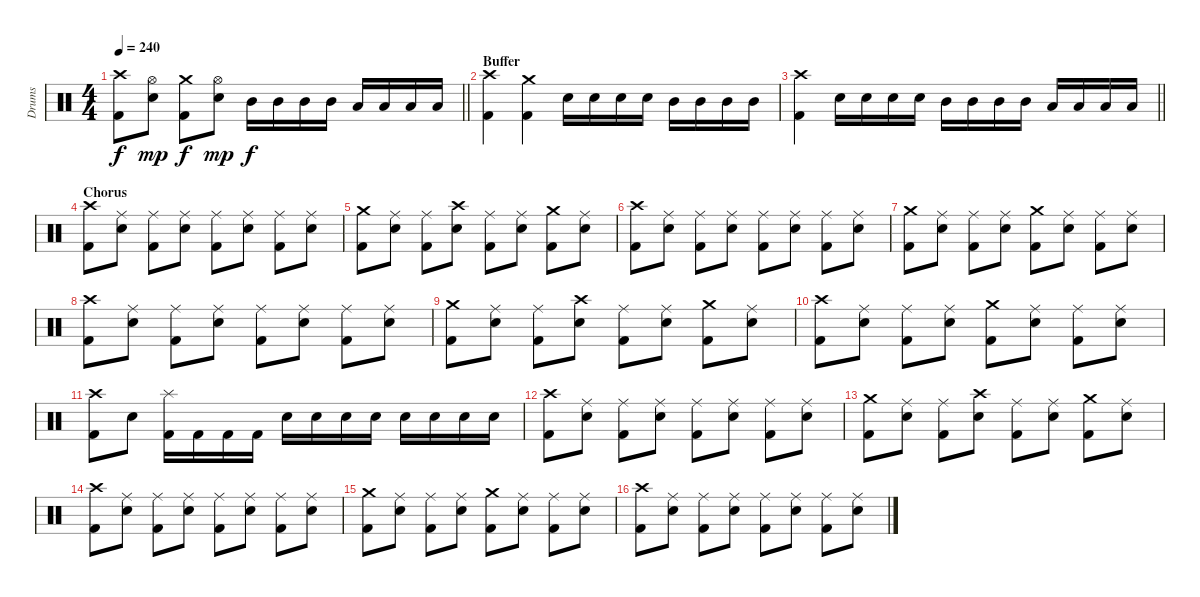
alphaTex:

\track ("Drums" "Drums") {instrument percussion}
\staff {score}
\articulation defaults
\ts (4 4)
\tempo 240
\clef neutral
\barLineRight lightlight
\ks c
("Crash high (hit)" "Kick (hit) 2").8{dy f} ("Hi-Hat (open)" "Snare (hit) 2").8{dy mp} ("Crash medium (hit)" "Kick (hit) 2").8{dy f} ("Hi-Hat (open)" "Snare (hit) 2").8{dy mp} "Mid Tom (hit)".16{dy f} "Mid Tom (hit)".16 "Mid Tom (hit)".16 "Mid Tom (hit)".16 "Low Tom (hit)".16 "Low Tom (hit)".16 "Low Tom (hit)".16 "Low Tom (hit)".16 |
\section ("" "Buffer")
("Crash high (hit)" "Kick (hit) 2").4 ("Crash medium (hit)" "Kick (hit) 2").4 "Snare (hit) 2".16 "Snare (hit) 2".16 "Snare (hit) 2".16 "Snare (hit) 2".16 "Mid Tom (hit)".16 "Mid Tom (hit)".16 "Mid Tom (hit)".16 "Mid Tom (hit)".16 |
\barLineRight lightlight
("Crash high (hit)" "Kick (hit) 2").4 "Snare (hit) 2".16 "Snare (hit) 2".16 "Snare (hit) 2".16 "Snare (hit) 2".16 "Mid Tom (hit)".16 "Mid Tom (hit)".16 "Mid Tom (hit)".16 "Mid Tom (hit)".16 "Low Tom (hit)".16 "Low Tom (hit)".16 "Low Tom (hit)".16 "Low Tom (hit)".16 |
\section ("" "Chorus")
("Crash high (hit)" "Kick (hit) 2").8 ("Ride (middle)" "Snare (hit) 2").8 ("Ride (middle)" "Kick (hit) 2").8 ("Ride (middle)" "Snare (hit) 2").8 ("Ride (middle)" "Kick (hit) 2").8 ("Ride (middle)" "Snare (hit) 2").8 ("Ride (middle)" "Kick (hit) 2").8 ("Ride (middle)" "Snare (hit) 2").8 |
("Crash medium (hit)" "Kick (hit) 2").8 ("Ride (middle)" "Snare (hit) 2").8 ("Ride (middle)" "Kick (hit) 2").8 ("Crash high (hit)" "Snare (hit) 2").8 ("Ride (middle)" "Kick (hit) 2").8 ("Ride (middle)" "Snare (hit) 2").8 ("Crash medium (hit)" "Kick (hit) 2").8 ("Ride (middle)" "Snare (hit) 2").8 |
("Crash high (hit)" "Kick (hit) 2").8 ("Ride (middle)" "Snare (hit) 2").8 ("Ride (middle)" "Kick (hit) 2").8 ("Ride (middle)" "Snare (hit) 2").8 ("Ride (middle)" "Kick (hit) 2").8 ("Ride (middle)" "Snare (hit) 2").8 ("Ride (middle)" "Kick (hit) 2").8 ("Ride (middle)" "Snare (hit) 2").8 |
("Crash medium (hit)" "Kick (hit) 2").8 ("Ride (middle)" "Snare (hit) 2").8 ("Ride (middle)" "Kick (hit) 2").8 ("Ride (middle)" "Snare (hit) 2").8 ("Crash medium (hit)" "Kick (hit) 2").8 ("Ride (middle)" "Snare (hit) 2").8 ("Ride (middle)" "Kick (hit) 2").8 ("Ride (middle)" "Snare (hit) 2").8 |
("Crash high (hit)" "Kick (hit) 2").8 ("Ride (middle)" "Snare (hit) 2").8 ("Ride (middle)" "Kick (hit) 2").8 ("Ride (middle)" "Snare (hit) 2").8 ("Ride (middle)" "Kick (hit) 2").8 ("Ride (middle)" "Snare (hit) 2").8 ("Ride (middle)" "Kick (hit) 2").8 ("Ride (middle)" "Snare (hit) 2").8 |
("Crash medium (hit)" "Kick (hit) 2").8 ("Ride (middle)" "Snare (hit) 2").8 ("Ride (middle)" "Kick (hit) 2").8 ("Crash high (hit)" "Snare (hit) 2").8 ("Ride (middle)" "Kick (hit) 2").8 ("Ride (middle)" "Snare (hit) 2").8 ("Crash medium (hit)" "Kick (hit) 2").8 ("Ride (middle)" "Snare (hit) 2").8 |
("Crash high (hit)" "Kick (hit) 2").8 ("Ride (middle)" "Snare (hit) 2").8 ("Ride (middle)" "Kick (hit) 2").8 ("Ride (middle)" "Snare (hit) 2").8 ("Crash medium (hit)" "Kick (hit) 2").8 ("Ride (middle)" "Snare (hit) 2").8 ("Ride (middle)" "Kick (hit) 2").8 ("Ride (middle)" "Snare (hit) 2").8 |
("Crash high (hit)" "Kick (hit) 2").8 "Snare (hit) 2".8 ("Splash (hit)" "Kick (hit) 2").16 "Kick (hit) 2".16 "Kick (hit) 2".16 "Kick (hit) 2".16 "Snare (hit) 2".16 "Snare (hit) 2".16 "Snare (hit) 2".16 "Snare (hit) 2".16 "Snare (hit) 2".16 "Snare (hit) 2".16 "Snare (hit) 2".16 "Snare (hit) 2".16 |
("Crash high (hit)" "Kick (hit) 2").8 ("Ride (middle)" "Snare (hit) 2").8 ("Ride (middle)" "Kick (hit) 2").8 ("Ride (middle)" "Snare (hit) 2").8 ("Ride (middle)" "Kick (hit) 2").8 ("Ride (middle)" "Snare (hit) 2").8 ("Ride (middle)" "Kick (hit) 2").8 ("Ride (middle)" "Snare (hit) 2").8 |
("Crash medium (hit)" "Kick (hit) 2").8 ("Ride (middle)" "Snare (hit) 2").8 ("Ride (middle)" "Kick (hit) 2").8 ("Crash high (hit)" "Snare (hit) 2").8 ("Ride (middle)" "Kick (hit) 2").8 ("Ride (middle)" "Snare (hit) 2").8 ("Crash medium (hit)" "Kick (hit) 2").8 ("Ride (middle)" "Snare (hit) 2").8 |
("Crash high (hit)" "Kick (hit) 2").8 ("Ride (middle)" "Snare (hit) 2").8 ("Ride (middle)" "Kick (hit) 2").8 ("Ride (middle)" "Snare (hit) 2").8 ("Ride (middle)" "Kick (hit) 2").8 ("Ride (middle)" "Snare (hit) 2").8 ("Ride (middle)" "Kick (hit) 2").8 ("Ride (middle)" "Snare (hit) 2").8 |
("Crash medium (hit)" "Kick (hit) 2").8 ("Ride (middle)" "Snare (hit) 2").8 ("Ride (middle)" "Kick (hit) 2").8 ("Ride (middle)" "Snare (hit) 2").8 ("Crash medium (hit)" "Kick (hit) 2").8 ("Ride (middle)" "Snare (hit) 2").8 ("Ride (middle)" "Kick (hit) 2").8 ("Ride (middle)" "Snare (hit) 2").8 |
("Crash high (hit)" "Kick (hit) 2").8 ("Ride (middle)" "Snare (hit) 2").8 ("Ride (middle)" "Kick (hit) 2").8 ("Ride (middle)" "Snare (hit) 2").8 ("Ride (middle)" "Kick (hit) 2").8 ("Ride (middle)" "Snare (hit) 2").8 ("Ride (middle)" "Kick (hit) 2").8 ("Ride (middle)" "Snare (hit) 2").8
